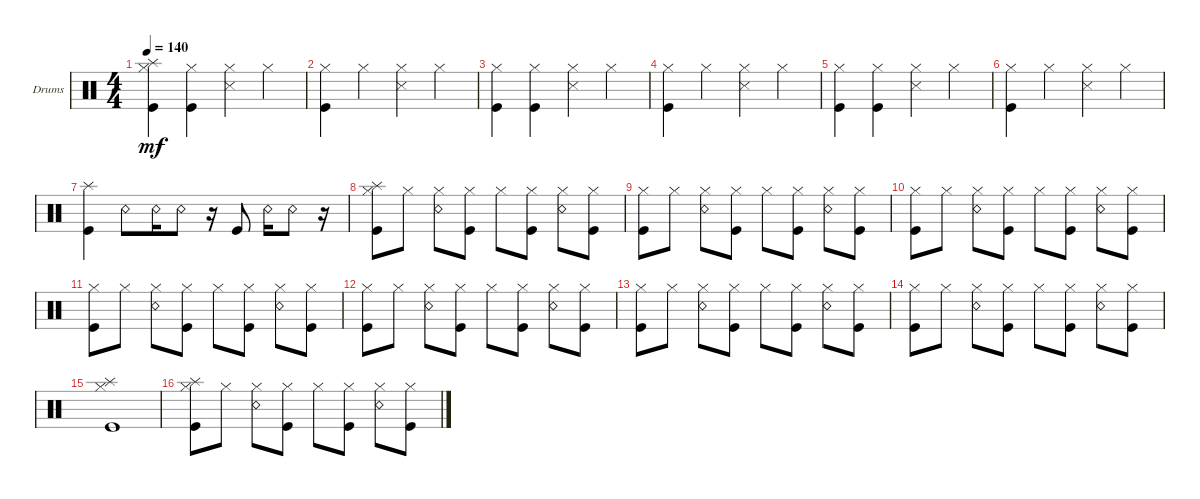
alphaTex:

\defaultSystemsLayout 4
\bracketExtendMode groupsimilarinstruments
\firstSystemTrackNameOrientation horizontal
\otherSystemsTrackNameOrientation horizontal
\track ("Drumkit" "Drums") {instrument percussion}
\staff {score}
\articulation defaults
\ts (4 4)
\tempo 140
\clef neutral
\ks c
("Hi-Hat (closed)" "Kick (hit)" "Splash (hit)").4{dy mf} ("Hi-Hat (closed)" "Kick (hit)").4 ("Hi-Hat (closed)" "Snare (side stick) 3").4 "Hi-Hat (closed)".4 |
("Hi-Hat (closed)" "Kick (hit)").4 "Hi-Hat (closed)".4 ("Hi-Hat (closed)" "Snare (side stick) 3").4 "Hi-Hat (closed)".4 |
("Hi-Hat (closed)" "Kick (hit)").4 ("Hi-Hat (closed)" "Kick (hit)").4 ("Hi-Hat (closed)" "Snare (side stick) 3").4 "Hi-Hat (closed)".4 |
("Hi-Hat (closed)" "Kick (hit)").4 "Hi-Hat (closed)".4 ("Hi-Hat (closed)" "Snare (side stick) 3").4 "Hi-Hat (closed)".4 |
("Hi-Hat (closed)" "Kick (hit)").4 ("Hi-Hat (closed)" "Kick (hit)").4 ("Hi-Hat (closed)" "Snare (side stick) 3").4 "Hi-Hat (closed)".4 |
("Hi-Hat (closed)" "Kick (hit)").4 "Hi-Hat (closed)".4 ("Hi-Hat (closed)" "Snare (side stick) 3").4 "Hi-Hat (closed)".4 |
("Splash (hit)" "Kick (hit)").4 "Snare (rim shot)".8 "Snare (rim shot)".16 "Snare (rim shot)".8 r.16 "Kick (hit)".8 "Snare (rim shot)".16 "Snare (rim shot)".8 r.16 |
("Kick (hit)" "Hi-Hat (closed)" "Splash (hit)").8 "Hi-Hat (closed)".8 ("Hi-Hat (closed)" "Snare (rim shot)").8 ("Hi-Hat (closed)" "Kick (hit)").8 "Hi-Hat (closed)".8 ("Hi-Hat (closed)" "Kick (hit)").8 ("Hi-Hat (closed)" "Snare (rim shot)").8 ("Hi-Hat (closed)" "Kick (hit)").8 |
("Kick (hit)" "Hi-Hat (closed)").8 "Hi-Hat (closed)".8 ("Hi-Hat (closed)" "Snare (rim shot)").8 ("Hi-Hat (closed)" "Kick (hit)").8 "Hi-Hat (closed)".8 ("Hi-Hat (closed)" "Kick (hit)").8 ("Hi-Hat (closed)" "Snare (rim shot)").8 ("Hi-Hat (closed)" "Kick (hit)").8 |
("Kick (hit)" "Hi-Hat (closed)").8 "Hi-Hat (closed)".8 ("Hi-Hat (closed)" "Snare (rim shot)").8 ("Hi-Hat (closed)" "Kick (hit)").8 "Hi-Hat (closed)".8 ("Hi-Hat (closed)" "Kick (hit)").8 ("Hi-Hat (closed)" "Snare (rim shot)").8 ("Hi-Hat (closed)" "Kick (hit)").8 |
("Kick (hit)" "Hi-Hat (closed)").8 "Hi-Hat (closed)".8 ("Hi-Hat (closed)" "Snare (rim shot)").8 ("Hi-Hat (closed)" "Kick (hit)").8 "Hi-Hat (closed)".8 ("Hi-Hat (closed)" "Kick (hit)").8 ("Hi-Hat (closed)" "Snare (rim shot)").8 ("Hi-Hat (closed)" "Kick (hit)").8 |
("Kick (hit)" "Hi-Hat (closed)").8 "Hi-Hat (closed)".8 ("Hi-Hat (closed)" "Snare (rim shot)").8 ("Hi-Hat (closed)" "Kick (hit)").8 "Hi-Hat (closed)".8 ("Hi-Hat (closed)" "Kick (hit)").8 ("Hi-Hat (closed)" "Snare (rim shot)").8 ("Hi-Hat (closed)" "Kick (hit)").8 |
("Kick (hit)" "Hi-Hat (closed)").8 "Hi-Hat (closed)".8 ("Hi-Hat (closed)" "Snare (rim shot)").8 ("Hi-Hat (closed)" "Kick (hit)").8 "Hi-Hat (closed)".8 ("Hi-Hat (closed)" "Kick (hit)").8 ("Hi-Hat (closed)" "Snare (rim shot)").8 ("Hi-Hat (closed)" "Kick (hit)").8 |
("Kick (hit)" "Hi-Hat (closed)").8 "Hi-Hat (closed)".8 ("Hi-Hat (closed)" "Snare (rim shot)").8 ("Hi-Hat (closed)" "Kick (hit)").8 "Hi-Hat (closed)".8 ("Hi-Hat (closed)" "Kick (hit)").8 ("Hi-Hat (closed)" "Snare (rim shot)").8 ("Hi-Hat (closed)" "Kick (hit)").8 |
("Kick (hit)" "Hi-Hat (closed)" "Splash (hit)").1 |
("Kick (hit)" "Hi-Hat (closed)" "Splash (hit)").8 "Hi-Hat (closed)".8 ("Hi-Hat (closed)" "Snare (rim shot)").8 ("Hi-Hat (closed)" "Kick (hit)").8 "Hi-Hat (closed)".8 ("Hi-Hat (closed)" "Kick (hit)").8 ("Hi-Hat (closed)" "Snare (rim shot)").8 ("Hi-Hat (closed)" "Kick (hit)").8
